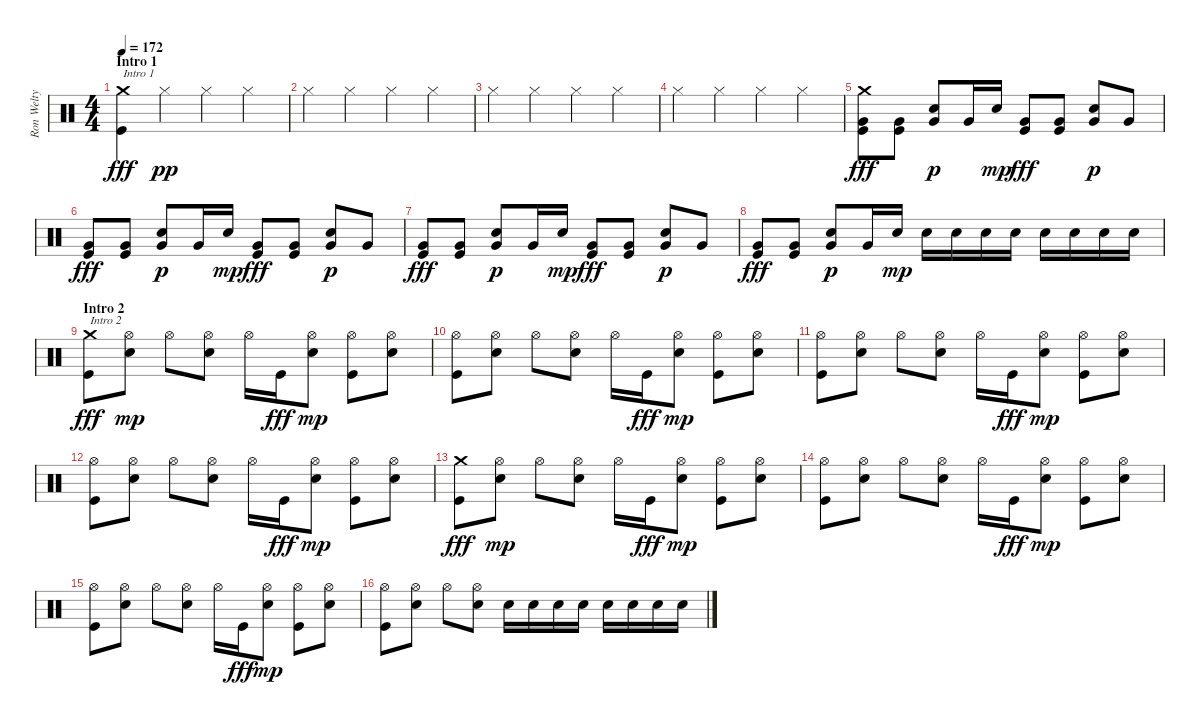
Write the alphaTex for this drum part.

\track ("Ron Welty (John Wnek's tab)" "Ron Welty ") {instrument percussion}
\staff {score}
\articulation defaults
\ts (4 4)
\section ("" "Intro 1")
\tempo 172
\clef neutral
\ks c
("Crash medium (hit)" "Kick (hit)").4{txt "Intro 1" dy fff} "Hi-Hat (closed)".4{dy pp} "Hi-Hat (closed)".4 "Hi-Hat (closed)".4 |
"Hi-Hat (closed)".4 "Hi-Hat (closed)".4 "Hi-Hat (closed)".4 "Hi-Hat (closed)".4 |
"Hi-Hat (closed)".4 "Hi-Hat (closed)".4 "Hi-Hat (closed)".4 "Hi-Hat (closed)".4 |
"Hi-Hat (closed)".4 "Hi-Hat (closed)".4 "Hi-Hat (closed)".4 "Hi-Hat (closed)".4 |
("Crash medium (hit)" "Very Low Tom (hit)" "Kick (hit)").8{dy fff} ("Very Low Tom (hit)" "Kick (hit)").8 ("Snare (hit) 2" "Very Low Tom (hit)").8{dy p} "Very Low Tom (hit)".16 "Snare (hit) 2".16{dy mp} ("Very Low Tom (hit)" "Kick (hit)").8{dy fff} ("Very Low Tom (hit)" "Kick (hit)").8 ("Snare (hit) 2" "Very Low Tom (hit)").8{dy p} "Very Low Tom (hit)".8 |
("Very Low Tom (hit)" "Kick (hit)").8{dy fff} ("Very Low Tom (hit)" "Kick (hit)").8 ("Snare (hit) 2" "Very Low Tom (hit)").8{dy p} "Very Low Tom (hit)".16 "Snare (hit) 2".16{dy mp} ("Very Low Tom (hit)" "Kick (hit)").8{dy fff} ("Very Low Tom (hit)" "Kick (hit)").8 ("Snare (hit) 2" "Very Low Tom (hit)").8{dy p} "Very Low Tom (hit)".8 |
("Very Low Tom (hit)" "Kick (hit)").8{dy fff} ("Very Low Tom (hit)" "Kick (hit)").8 ("Snare (hit) 2" "Very Low Tom (hit)").8{dy p} "Very Low Tom (hit)".16 "Snare (hit) 2".16{dy mp} ("Very Low Tom (hit)" "Kick (hit)").8{dy fff} ("Very Low Tom (hit)" "Kick (hit)").8 ("Snare (hit) 2" "Very Low Tom (hit)").8{dy p} "Very Low Tom (hit)".8 |
("Very Low Tom (hit)" "Kick (hit)").8{dy fff} ("Very Low Tom (hit)" "Kick (hit)").8 ("Snare (hit) 2" "Very Low Tom (hit)").8{dy p} "Very Low Tom (hit)".16 "Snare (hit) 2".16{dy mp} "Snare (hit) 2".16 "Snare (hit) 2".16 "Snare (hit) 2".16 "Snare (hit) 2".16 "Snare (hit) 2".16 "Snare (hit) 2".16 "Snare (hit) 2".16 "Snare (hit) 2".16 |
\section ("" "Intro 2")
("Crash medium (hit)" "Kick (hit)").8{txt "Intro 2" dy fff} ("Snare (hit) 2" "Hi-Hat (open)").8{dy mp} "Hi-Hat (open)".8 ("Snare (hit) 2" "Hi-Hat (open)").8 "Hi-Hat (open)".16 "Kick (hit)".16{dy fff} ("Snare (hit) 2" "Hi-Hat (open)").8{dy mp} ("Kick (hit)" "Hi-Hat (open)").8 ("Snare (hit) 2" "Hi-Hat (open)").8 |
("Kick (hit)" "Hi-Hat (open)").8 ("Snare (hit) 2" "Hi-Hat (open)").8 "Hi-Hat (open)".8 ("Snare (hit) 2" "Hi-Hat (open)").8 "Hi-Hat (open)".16 "Kick (hit)".16{dy fff} ("Snare (hit) 2" "Hi-Hat (open)").8{dy mp} ("Kick (hit)" "Hi-Hat (open)").8 ("Snare (hit) 2" "Hi-Hat (open)").8 |
("Kick (hit)" "Hi-Hat (open)").8 ("Snare (hit) 2" "Hi-Hat (open)").8 "Hi-Hat (open)".8 ("Snare (hit) 2" "Hi-Hat (open)").8 "Hi-Hat (open)".16 "Kick (hit)".16{dy fff} ("Snare (hit) 2" "Hi-Hat (open)").8{dy mp} ("Kick (hit)" "Hi-Hat (open)").8 ("Snare (hit) 2" "Hi-Hat (open)").8 |
("Kick (hit)" "Hi-Hat (open)").8 ("Snare (hit) 2" "Hi-Hat (open)").8 "Hi-Hat (open)".8 ("Snare (hit) 2" "Hi-Hat (open)").8 "Hi-Hat (open)".16 "Kick (hit)".16{dy fff} ("Snare (hit) 2" "Hi-Hat (open)").8{dy mp} ("Kick (hit)" "Hi-Hat (open)").8 ("Snare (hit) 2" "Hi-Hat (open)").8 |
("Crash medium (hit)" "Kick (hit)").8{dy fff} ("Snare (hit) 2" "Hi-Hat (open)").8{dy mp} "Hi-Hat (open)".8 ("Snare (hit) 2" "Hi-Hat (open)").8 "Hi-Hat (open)".16 "Kick (hit)".16{dy fff} ("Snare (hit) 2" "Hi-Hat (open)").8{dy mp} ("Kick (hit)" "Hi-Hat (open)").8 ("Snare (hit) 2" "Hi-Hat (open)").8 |
("Kick (hit)" "Hi-Hat (open)").8 ("Snare (hit) 2" "Hi-Hat (open)").8 "Hi-Hat (open)".8 ("Snare (hit) 2" "Hi-Hat (open)").8 "Hi-Hat (open)".16 "Kick (hit)".16{dy fff} ("Snare (hit) 2" "Hi-Hat (open)").8{dy mp} ("Kick (hit)" "Hi-Hat (open)").8 ("Snare (hit) 2" "Hi-Hat (open)").8 |
("Kick (hit)" "Hi-Hat (open)").8 ("Snare (hit) 2" "Hi-Hat (open)").8 "Hi-Hat (open)".8 ("Snare (hit) 2" "Hi-Hat (open)").8 "Hi-Hat (open)".16 "Kick (hit)".16{dy fff} ("Snare (hit) 2" "Hi-Hat (open)").8{dy mp} ("Kick (hit)" "Hi-Hat (open)").8 ("Snare (hit) 2" "Hi-Hat (open)").8 |
("Kick (hit)" "Hi-Hat (open)").8 ("Snare (hit) 2" "Hi-Hat (open)").8 "Hi-Hat (open)".8 ("Snare (hit) 2" "Hi-Hat (open)").8 "Snare (hit) 2".16 "Snare (hit) 2".16 "Snare (hit) 2".16 "Snare (hit) 2".16 "Snare (hit) 2".16 "Snare (hit) 2".16 "Snare (hit) 2".16 "Snare (hit) 2".16
